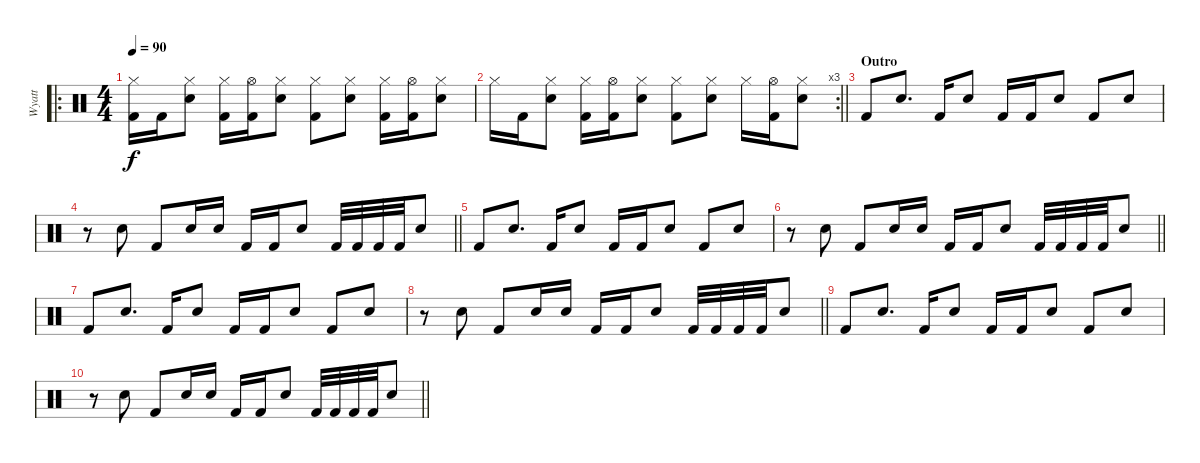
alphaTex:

\track ("Wyatt" "Wyatt") {instrument percussion}
\staff {score}
\articulation defaults
\ro
\ts (4 4)
\tempo 90
\clef neutral
\ks c
("Hi-Hat (closed)" "Kick (hit) 2").16{dy f} "Kick (hit) 2".16 ("Hi-Hat (closed)" "Electric Snare (hit)").8 ("Hi-Hat (closed)" "Kick (hit) 2").16 ("Hi-Hat (open)" "Kick (hit) 2").16 ("Hi-Hat (closed)" "Electric Snare (hit)").8 ("Hi-Hat (closed)" "Kick (hit) 2").8 ("Hi-Hat (closed)" "Electric Snare (hit)").8 ("Hi-Hat (closed)" "Kick (hit) 2").16 ("Hi-Hat (open)" "Kick (hit) 2").16 ("Hi-Hat (closed)" "Electric Snare (hit)").8 |
\rc 3
\barLineRight lightlight "Hi-Hat (closed)".16 "Kick (hit) 2".16
("Hi-Hat (closed)" "Electric Snare (hit)").8 ("Hi-Hat (closed)" "Kick (hit) 2").16 ("Hi-Hat (open)" "Kick (hit) 2").16 ("Hi-Hat (closed)" "Electric Snare (hit)").8 ("Hi-Hat (closed)" "Kick (hit) 2").8 ("Hi-Hat (closed)" "Electric Snare (hit)").8 "Hi-Hat (closed)".16 ("Hi-Hat (open)" "Kick (hit) 2").16 ("Hi-Hat (closed)" "Electric Snare (hit)").8 |
\section ("" "Outro")
"Kick (hit) 2".8 "Hand Clap (hit)".8{d} "Kick (hit) 2".16 "Hand Clap (hit)".8 "Kick (hit) 2".16 "Kick (hit) 2".16 "Hand Clap (hit)".8 "Kick (hit) 2".8 "Hand Clap (hit)".8 |
\barLineRight lightlight
r.8 "Hand Clap (hit)".8 "Kick (hit) 2".8 "Hand Clap (hit)".16 "Hand Clap (hit)".16 "Kick (hit) 2".16 "Kick (hit) 2".16 "Hand Clap (hit)".8 "Kick (hit) 2".32 "Kick (hit) 2".32 "Kick (hit) 2".32 "Kick (hit) 2".32 "Hand Clap (hit)".8 |
"Kick (hit) 2".8 "Hand Clap (hit)".8{d} "Kick (hit) 2".16 "Hand Clap (hit)".8 "Kick (hit) 2".16 "Kick (hit) 2".16 "Hand Clap (hit)".8 "Kick (hit) 2".8 "Hand Clap (hit)".8 |
\barLineRight lightlight
r.8 "Hand Clap (hit)".8 "Kick (hit) 2".8 "Hand Clap (hit)".16 "Hand Clap (hit)".16 "Kick (hit) 2".16 "Kick (hit) 2".16 "Hand Clap (hit)".8 "Kick (hit) 2".32 "Kick (hit) 2".32 "Kick (hit) 2".32 "Kick (hit) 2".32 "Hand Clap (hit)".8 |
"Kick (hit) 2".8{volume 0} "Hand Clap (hit)".8{d} "Kick (hit) 2".16 "Hand Clap (hit)".8 "Kick (hit) 2".16 "Kick (hit) 2".16 "Hand Clap (hit)".8 "Kick (hit) 2".8 "Hand Clap (hit)".8 |
\barLineRight lightlight
r.8 "Hand Clap (hit)".8 "Kick (hit) 2".8 "Hand Clap (hit)".16 "Hand Clap (hit)".16 "Kick (hit) 2".16 "Kick (hit) 2".16 "Hand Clap (hit)".8 "Kick (hit) 2".32 "Kick (hit) 2".32 "Kick (hit) 2".32 "Kick (hit) 2".32 "Hand Clap (hit)".8 |
"Kick (hit) 2".8 "Hand Clap (hit)".8{d} "Kick (hit) 2".16 "Hand Clap (hit)".8 "Kick (hit) 2".16 "Kick (hit) 2".16 "Hand Clap (hit)".8 "Kick (hit) 2".8 "Hand Clap (hit)".8 |
\barLineRight lightlight
r.8 "Hand Clap (hit)".8 "Kick (hit) 2".8 "Hand Clap (hit)".16 "Hand Clap (hit)".16 "Kick (hit) 2".16 "Kick (hit) 2".16 "Hand Clap (hit)".8 "Kick (hit) 2".32 "Kick (hit) 2".32 "Kick (hit) 2".32 "Kick (hit) 2".32 "Hand Clap (hit)".8
